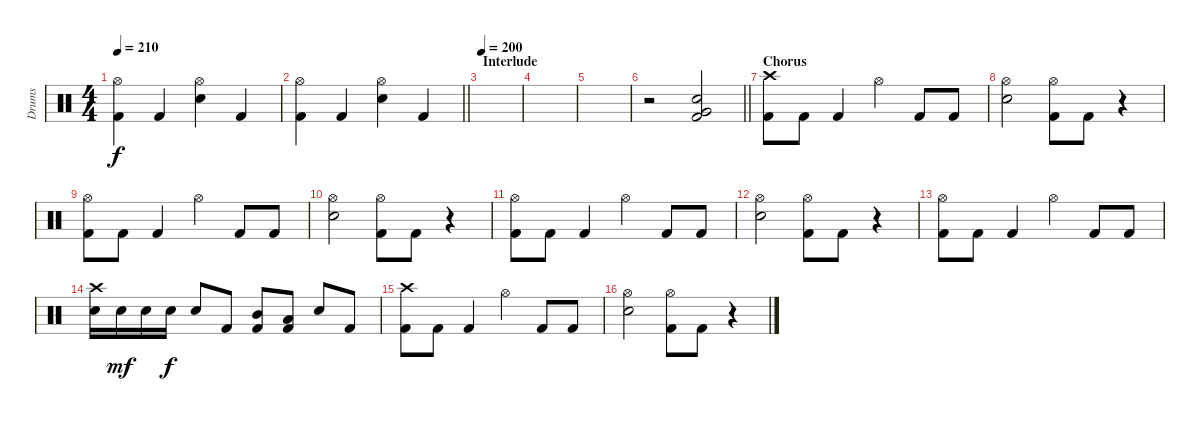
\track ("Drums" "Drums") {instrument percussion}
\staff {score}
\articulation defaults
\ts (4 4)
\tempo 210
\clef neutral
\ks c
("Hi-Hat (open)" "Kick (hit) 2").4{dy f} "Kick (hit) 2".4 ("Hi-Hat (open)" "Snare (hit) 2").4 "Kick (hit) 2".4 |
\barLineRight lightlight
("Hi-Hat (open)" "Kick (hit) 2").4 "Kick (hit) 2".4 ("Hi-Hat (open)" "Snare (hit) 2").4 "Kick (hit) 2".4 |
\section ("" "Interlude")
\tempo 200
|
|
|
\barLineRight lightlight
r.2 ("Snare (hit) 2" "Very Low Tom (hit)" "Kick (hit) 2").2 |
\section ("" "Chorus")
("Crash high (hit)" "Kick (hit) 2").8 "Kick (hit) 2".8 "Kick (hit) 2".4 "Hi-Hat (open)".4 "Kick (hit) 2".8 "Kick (hit) 2".8 |
("Hi-Hat (open)" "Snare (hit) 2").2 ("Hi-Hat (open)" "Kick (hit) 2").8 "Kick (hit) 2".8 r.4 |
("Hi-Hat (open)" "Kick (hit) 2").8 "Kick (hit) 2".8 "Kick (hit) 2".4 "Hi-Hat (open)".4 "Kick (hit) 2".8 "Kick (hit) 2".8 |
("Hi-Hat (open)" "Snare (hit) 2").2 ("Hi-Hat (open)" "Kick (hit) 2").8 "Kick (hit) 2".8 r.4 |
("Hi-Hat (open)" "Kick (hit) 2").8 "Kick (hit) 2".8 "Kick (hit) 2".4 "Hi-Hat (open)".4 "Kick (hit) 2".8 "Kick (hit) 2".8 |
("Hi-Hat (open)" "Snare (hit) 2").2 ("Hi-Hat (open)" "Kick (hit) 2").8 "Kick (hit) 2".8 r.4 |
("Hi-Hat (open)" "Kick (hit) 2").8 "Kick (hit) 2".8 "Kick (hit) 2".4 "Hi-Hat (open)".4 "Kick (hit) 2".8 "Kick (hit) 2".8 |
("Crash high (hit)" "Snare (hit) 2").16 "Snare (hit) 2".16{dy mf} "Snare (hit) 2".16 "Snare (hit) 2".16{dy f} "Snare (hit) 2".8 "Kick (hit) 2".8 ("Mid Tom (hit)" "Kick (hit) 2").8 ("Low Tom (hit)" "Kick (hit) 2").8 "Snare (hit) 2".8 "Kick (hit) 2".8 |
("Crash high (hit)" "Kick (hit) 2").8 "Kick (hit) 2".8 "Kick (hit) 2".4 "Hi-Hat (open)".4 "Kick (hit) 2".8 "Kick (hit) 2".8 |
("Hi-Hat (open)" "Snare (hit) 2").2 ("Hi-Hat (open)" "Kick (hit) 2").8 "Kick (hit) 2".8 r.4
